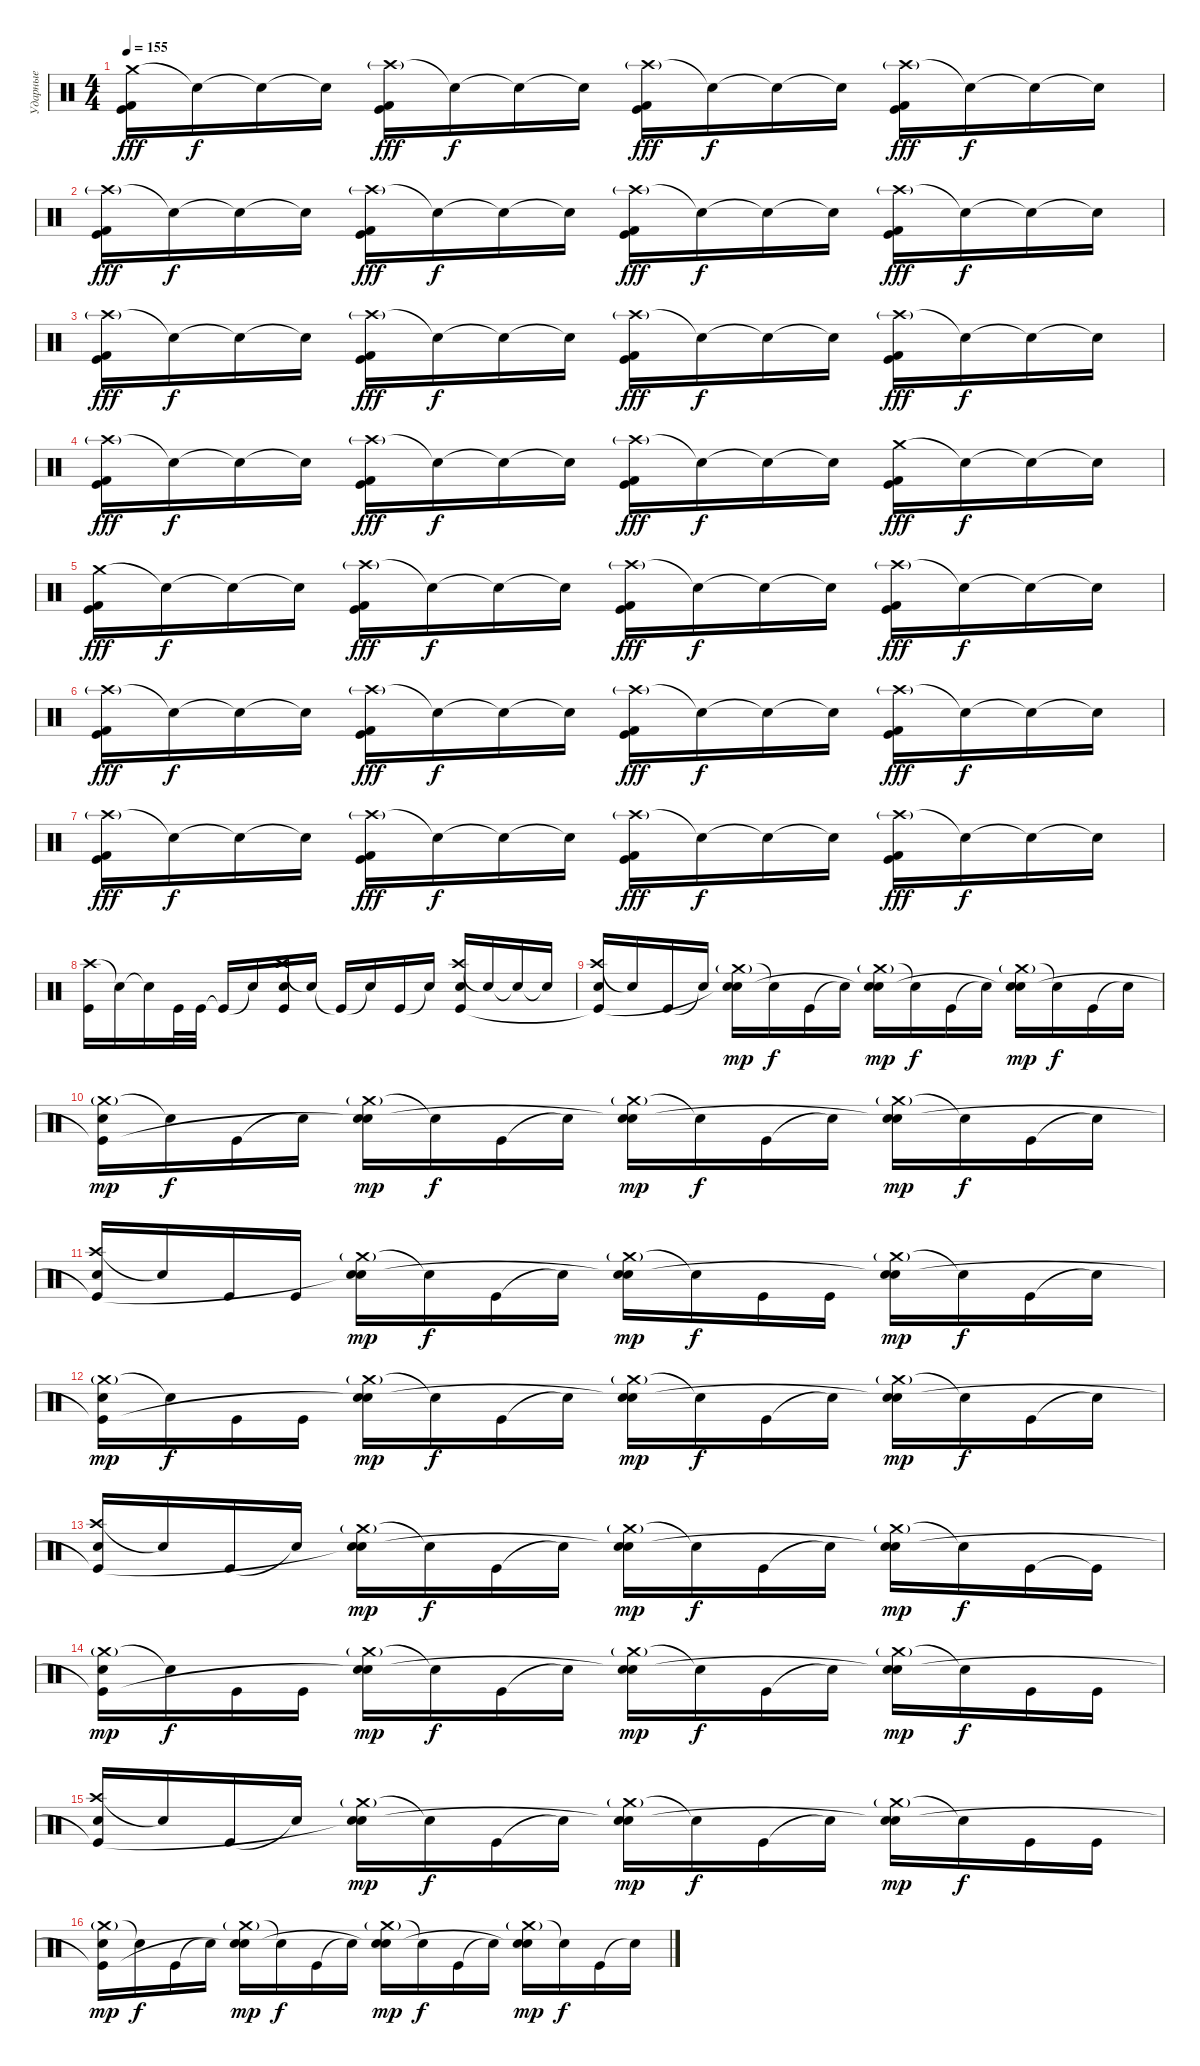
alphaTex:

\track ("Ударные" "Ударные") {instrument percussion}
\staff {score}
\articulation defaults
\ts (4 4)
\tempo 155
\clef neutral
\ks c
("Crash medium (hit)" "Kick (hit) 2" "Kick (hit)").16{dy fff} "Snare (hit)"{t}.16{dy f} "Snare (hit)"{t}.16 "Snare (hit)"{t}.16 ("Crash high (hit)"{g} "Kick (hit) 2" "Kick (hit)").16{dy fff} "Snare (hit)"{t}.16{dy f} "Snare (hit)"{t}.16 "Snare (hit)"{t}.16 ("Crash high (hit)"{g} "Kick (hit) 2" "Kick (hit)").16{dy fff} "Snare (hit)"{t}.16{dy f} "Snare (hit)"{t}.16 "Snare (hit)"{t}.16 ("Crash high (hit)"{g} "Kick (hit) 2" "Kick (hit)").16{dy fff} "Snare (hit)"{t}.16{dy f} "Snare (hit)"{t}.16 "Snare (hit)"{t}.16 |
("Crash high (hit)"{g} "Kick (hit) 2" "Kick (hit)").16{dy fff} "Snare (hit)"{t}.16{dy f} "Snare (hit)"{t}.16 "Snare (hit)"{t}.16 ("Crash high (hit)"{g} "Kick (hit) 2" "Kick (hit)").16{dy fff} "Snare (hit)"{t}.16{dy f} "Snare (hit)"{t}.16 "Snare (hit)"{t}.16 ("Crash high (hit)"{g} "Kick (hit) 2" "Kick (hit)").16{dy fff} "Snare (hit)"{t}.16{dy f} "Snare (hit)"{t}.16 "Snare (hit)"{t}.16 ("Crash high (hit)"{g} "Kick (hit) 2" "Kick (hit)").16{dy fff} "Snare (hit)"{t}.16{dy f} "Snare (hit)"{t}.16 "Snare (hit)"{t}.16 |
("Crash high (hit)"{g} "Kick (hit) 2" "Kick (hit)").16{dy fff} "Snare (hit)"{t}.16{dy f} "Snare (hit)"{t}.16 "Snare (hit)"{t}.16 ("Crash high (hit)"{g} "Kick (hit) 2" "Kick (hit)").16{dy fff} "Snare (hit)"{t}.16{dy f} "Snare (hit)"{t}.16 "Snare (hit)"{t}.16 ("Crash high (hit)"{g} "Kick (hit) 2" "Kick (hit)").16{dy fff} "Snare (hit)"{t}.16{dy f} "Snare (hit)"{t}.16 "Snare (hit)"{t}.16 ("Crash high (hit)"{g} "Kick (hit) 2" "Kick (hit)").16{dy fff} "Snare (hit)"{t}.16{dy f} "Snare (hit)"{t}.16 "Snare (hit)"{t}.16 |
("Crash high (hit)"{g} "Kick (hit) 2" "Kick (hit)").16{dy fff} "Snare (hit)"{t}.16{dy f} "Snare (hit)"{t}.16 "Snare (hit)"{t}.16 ("Crash high (hit)"{g} "Kick (hit) 2" "Kick (hit)").16{dy fff} "Snare (hit)"{t}.16{dy f} "Snare (hit)"{t}.16 "Snare (hit)"{t}.16 ("Crash high (hit)"{g} "Kick (hit) 2" "Kick (hit)").16{dy fff} "Snare (hit)"{t}.16{dy f} "Snare (hit)"{t}.16 "Snare (hit)"{t}.16 ("Crash medium (hit)" "Kick (hit) 2" "Kick (hit)").16{dy fff} "Snare (hit)"{t}.16{dy f} "Snare (hit)"{t}.16 "Snare (hit)"{t}.16 |
("Crash medium (hit)" "Kick (hit) 2" "Kick (hit)").16{dy fff} "Snare (hit)"{t}.16{dy f} "Snare (hit)"{t}.16 "Snare (hit)"{t}.16 ("Crash high (hit)"{g} "Kick (hit) 2" "Kick (hit)").16{dy fff} "Snare (hit)"{t}.16{dy f} "Snare (hit)"{t}.16 "Snare (hit)"{t}.16 ("Crash high (hit)"{g} "Kick (hit) 2" "Kick (hit)").16{dy fff} "Snare (hit)"{t}.16{dy f} "Snare (hit)"{t}.16 "Snare (hit)"{t}.16 ("Crash high (hit)"{g} "Kick (hit) 2" "Kick (hit)").16{dy fff} "Snare (hit)"{t}.16{dy f} "Snare (hit)"{t}.16 "Snare (hit)"{t}.16 |
("Crash high (hit)"{g} "Kick (hit) 2" "Kick (hit)").16{dy fff} "Snare (hit)"{t}.16{dy f} "Snare (hit)"{t}.16 "Snare (hit)"{t}.16 ("Crash high (hit)"{g} "Kick (hit) 2" "Kick (hit)").16{dy fff} "Snare (hit)"{t}.16{dy f} "Snare (hit)"{t}.16 "Snare (hit)"{t}.16 ("Crash high (hit)"{g} "Kick (hit) 2" "Kick (hit)").16{dy fff} "Snare (hit)"{t}.16{dy f} "Snare (hit)"{t}.16 "Snare (hit)"{t}.16 ("Crash high (hit)"{g} "Kick (hit) 2" "Kick (hit)").16{dy fff} "Snare (hit)"{t}.16{dy f} "Snare (hit)"{t}.16 "Snare (hit)"{t}.16 |
("Crash high (hit)"{g} "Kick (hit) 2" "Kick (hit)").16{dy fff} "Snare (hit)"{t}.16{dy f} "Snare (hit)"{t}.16 "Snare (hit)"{t}.16 ("Crash high (hit)"{g} "Kick (hit) 2" "Kick (hit)").16{dy fff} "Snare (hit)"{t}.16{dy f} "Snare (hit)"{t}.16 "Snare (hit)"{t}.16 ("Crash high (hit)"{g} "Kick (hit) 2" "Kick (hit)").16{dy fff} "Snare (hit)"{t}.16{dy f} "Snare (hit)"{t}.16 "Snare (hit)"{t}.16 ("Crash high (hit)"{g} "Kick (hit) 2" "Kick (hit)").16{dy fff} "Snare (hit)"{t}.16{dy f} "Snare (hit)"{t}.16 "Snare (hit)"{t}.16 |
("Crash high (hit)" "Kick (hit)").16 "Snare (hit)"{t}.16 "Snare (hit)"{t}.16 "Kick (hit)".32 "Kick (hit)".32 "Kick (hit)"{t}.16 "Snare (hit)"{t}.16 ("Crash high (hit)" "Electric Snare (hit)" "Kick (hit)").16 "Snare (hit)"{t}.16 "Kick (hit)"{t}.16 "Snare (hit)"{t}.16 "Kick (hit)".16 "Snare (hit)"{t}.16 ("Crash high (hit)" "Electric Snare (hit)" "Kick (hit)").16 "Snare (hit)"{t}.16 "Snare (hit)"{t}.16 "Snare (hit)"{t}.16 |
("Crash high (hit)" "Electric Snare (hit)" "Kick (hit)"{t}).16 "Snare (hit)"{t}.16 "Kick (hit)".16 "Snare (hit)"{t}.16 ("Crash medium (hit)"{g} "Electric Snare (hit)" "Snare (hit)"{t}).16{dy mp} "Snare (hit)"{t}.16{dy f} "Kick (hit)".16 "Snare (hit)"{t}.16 ("Crash medium (hit)"{g} "Electric Snare (hit)" "Snare (hit)"{t}).16{dy mp} "Snare (hit)"{t}.16{dy f} "Kick (hit)".16 "Snare (hit)"{t}.16 ("Crash medium (hit)"{g} "Electric Snare (hit)" "Snare (hit)"{t}).16{dy mp} "Snare (hit)"{t}.16{dy f} "Kick (hit)".16 "Snare (hit)"{t}.16 |
("Crash medium (hit)"{g} "Electric Snare (hit)" "Kick (hit)"{t}).16{dy mp} "Snare (hit)"{t}.16{dy f} "Kick (hit)".16 "Snare (hit)"{t}.16 ("Crash medium (hit)"{g} "Electric Snare (hit)" "Snare (hit)"{t}).16{dy mp} "Snare (hit)"{t}.16{dy f} "Kick (hit)".16 "Snare (hit)"{t}.16 ("Crash medium (hit)"{g} "Electric Snare (hit)" "Snare (hit)"{t}).16{dy mp} "Snare (hit)"{t}.16{dy f} "Kick (hit)".16 "Snare (hit)"{t}.16 ("Crash medium (hit)"{g} "Electric Snare (hit)" "Snare (hit)"{t}).16{dy mp} "Snare (hit)"{t}.16{dy f} "Kick (hit)".16 "Snare (hit)"{t}.16 |
("Crash high (hit)" "Electric Snare (hit)" "Kick (hit)"{t}).16 "Snare (hit)"{t}.16 "Kick (hit)".16 "Kick (hit)".16 ("Crash medium (hit)"{g} "Electric Snare (hit)" "Snare (hit)"{t}).16{dy mp} "Snare (hit)"{t}.16{dy f} "Kick (hit)".16 "Snare (hit)"{t}.16 ("Crash medium (hit)"{g} "Electric Snare (hit)" "Snare (hit)"{t}).16{dy mp} "Snare (hit)"{t}.16{dy f} "Kick (hit)".16 "Kick (hit)".16 ("Crash medium (hit)"{g} "Electric Snare (hit)" "Snare (hit)"{t}).16{dy mp} "Snare (hit)"{t}.16{dy f} "Kick (hit)".16 "Snare (hit)"{t}.16 |
("Crash medium (hit)"{g} "Electric Snare (hit)" "Kick (hit)"{t}).16{dy mp} "Snare (hit)"{t}.16{dy f} "Kick (hit)".16 "Kick (hit)".16 ("Crash medium (hit)"{g} "Electric Snare (hit)" "Snare (hit)"{t}).16{dy mp} "Snare (hit)"{t}.16{dy f} "Kick (hit)".16 "Snare (hit)"{t}.16 ("Crash medium (hit)"{g} "Electric Snare (hit)" "Snare (hit)"{t}).16{dy mp} "Snare (hit)"{t}.16{dy f} "Kick (hit)".16 "Snare (hit)"{t}.16 ("Crash medium (hit)"{g} "Electric Snare (hit)" "Snare (hit)"{t}).16{dy mp} "Snare (hit)"{t}.16{dy f} "Kick (hit)".16 "Snare (hit)"{t}.16 |
("Crash high (hit)" "Electric Snare (hit)" "Kick (hit)"{t}).16 "Snare (hit)"{t}.16 "Kick (hit)".16 "Snare (hit)"{t}.16 ("Crash medium (hit)"{g} "Electric Snare (hit)" "Snare (hit)"{t}).16{dy mp} "Snare (hit)"{t}.16{dy f} "Kick (hit)".16 "Snare (hit)"{t}.16 ("Crash medium (hit)"{g} "Electric Snare (hit)" "Snare (hit)"{t}).16{dy mp} "Snare (hit)"{t}.16{dy f} "Kick (hit)".16 "Snare (hit)"{t}.16 ("Crash medium (hit)"{g} "Electric Snare (hit)" "Snare (hit)"{t}).16{dy mp} "Snare (hit)"{t}.16{dy f} "Kick (hit)".16 "Kick (hit)"{t}.16 |
("Crash medium (hit)"{g} "Electric Snare (hit)" "Kick (hit)"{t}).16{dy mp} "Snare (hit)"{t}.16{dy f} "Kick (hit)".16 "Kick (hit)".16 ("Crash medium (hit)"{g} "Electric Snare (hit)" "Snare (hit)"{t}).16{dy mp} "Snare (hit)"{t}.16{dy f} "Kick (hit)".16 "Snare (hit)"{t}.16 ("Crash medium (hit)"{g} "Electric Snare (hit)" "Snare (hit)"{t}).16{dy mp} "Snare (hit)"{t}.16{dy f} "Kick (hit)".16 "Snare (hit)"{t}.16 ("Crash medium (hit)"{g} "Electric Snare (hit)" "Snare (hit)"{t}).16{dy mp} "Snare (hit)"{t}.16{dy f} "Kick (hit)".16 "Kick (hit)".16 |
("Crash high (hit)" "Electric Snare (hit)" "Kick (hit)"{t}).16 "Snare (hit)"{t}.16 "Kick (hit)".16 "Snare (hit)"{t}.16 ("Crash medium (hit)"{g} "Electric Snare (hit)" "Snare (hit)"{t}).16{dy mp} "Snare (hit)"{t}.16{dy f} "Kick (hit)".16 "Snare (hit)"{t}.16 ("Crash medium (hit)"{g} "Electric Snare (hit)" "Snare (hit)"{t}).16{dy mp} "Snare (hit)"{t}.16{dy f} "Kick (hit)".16 "Snare (hit)"{t}.16 ("Crash medium (hit)"{g} "Electric Snare (hit)" "Snare (hit)"{t}).16{dy mp} "Snare (hit)"{t}.16{dy f} "Kick (hit)".16 "Kick (hit)".16 |
("Crash medium (hit)"{g} "Electric Snare (hit)" "Kick (hit)"{t}).16{dy mp} "Snare (hit)"{t}.16{dy f} "Kick (hit)".16 "Snare (hit)"{t}.16 ("Crash medium (hit)"{g} "Electric Snare (hit)" "Snare (hit)"{t}).16{dy mp} "Snare (hit)"{t}.16{dy f} "Kick (hit)".16 "Snare (hit)"{t}.16 ("Crash medium (hit)"{g} "Electric Snare (hit)" "Snare (hit)"{t}).16{dy mp} "Snare (hit)"{t}.16{dy f} "Kick (hit)".16 "Snare (hit)"{t}.16 ("Crash medium (hit)"{g} "Electric Snare (hit)" "Snare (hit)"{t}).16{dy mp} "Snare (hit)"{t}.16{dy f} "Kick (hit)".16 "Snare (hit)"{t}.16
